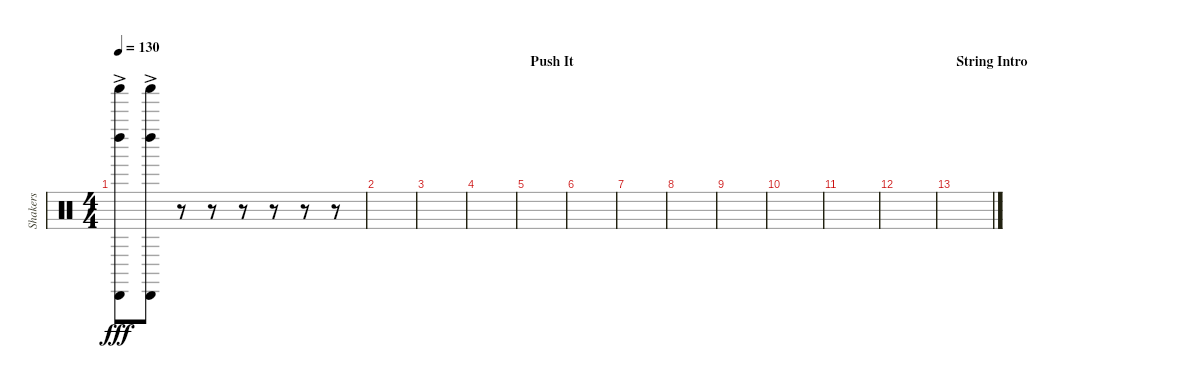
\track ("Shakers" "Shakers") {instrument percussion}
\staff {score}
\articulation defaults
\ts (4 4)
\tempo 130
\clef neutral
\ks c
("Cabasa (hit)"{ac} "Left Maraca (hit)"{ac} "Shaker (hit)"{ac}).8{dy fff} ("Cabasa (hit)"{ac} "Left Maraca (hit)"{ac} "Shaker (hit)"{ac}).8 r.8 r.8 r.8 r.8 r.8 r.8 |
|
|
|
\section ("" "Push It")
|
|
|
|
|
|
|
|
\section ("" "String Intro")
